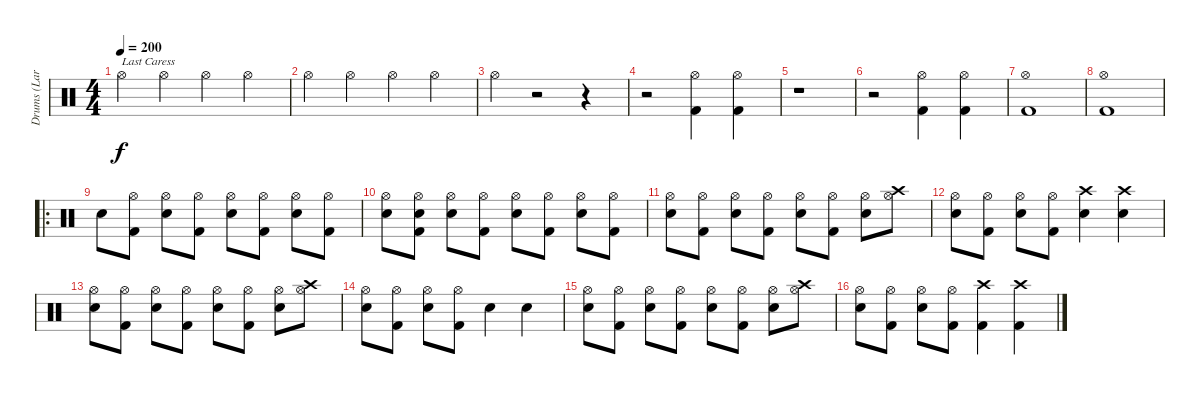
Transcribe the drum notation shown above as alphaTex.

\track ("Drums (Lars Ulrich)" "Drums (Lar") {instrument percussion}
\staff {score}
\articulation defaults
\ts (4 4)
\tempo 200
\clef neutral
\ks c "Hi-Hat (open)".4{txt "Last Caress" dy f} "Hi-Hat (open)".4 "Hi-Hat (open)".4 "Hi-Hat (open)".4
|
"Hi-Hat (open)".4 "Hi-Hat (open)".4 "Hi-Hat (open)".4 "Hi-Hat (open)".4 |
"Hi-Hat (open)".4 r.2 r.4 |
r.2 ("Hi-Hat (open)" "Kick (hit) 2").4 ("Hi-Hat (open)" "Kick (hit) 2").4 |
r.1 |
r.2 ("Hi-Hat (open)" "Kick (hit) 2").4 ("Hi-Hat (open)" "Kick (hit) 2").4 |
("Hi-Hat (open)" "Kick (hit) 2").1 |
("Hi-Hat (open)" "Kick (hit) 2").1 |
\ro "Snare (hit) 2".8
("Hi-Hat (open)" "Kick (hit) 2").8 ("Hi-Hat (open)" "Snare (hit) 2").8 ("Hi-Hat (open)" "Kick (hit) 2").8 ("Hi-Hat (open)" "Snare (hit) 2").8 ("Hi-Hat (open)" "Kick (hit) 2").8 ("Hi-Hat (open)" "Snare (hit) 2").8 ("Hi-Hat (open)" "Kick (hit) 2").8 |
("Hi-Hat (open)" "Snare (hit) 2").8 ("Hi-Hat (open)" "Snare (hit) 2" "Kick (hit) 2").8 ("Hi-Hat (open)" "Snare (hit) 2").8 ("Hi-Hat (open)" "Kick (hit) 2").8 ("Hi-Hat (open)" "Snare (hit) 2").8 ("Hi-Hat (open)" "Kick (hit) 2").8 ("Hi-Hat (open)" "Snare (hit) 2").8 ("Hi-Hat (open)" "Kick (hit) 2").8 |
("Hi-Hat (open)" "Snare (hit) 2").8 ("Hi-Hat (open)" "Kick (hit) 2").8 ("Hi-Hat (open)" "Snare (hit) 2").8 ("Hi-Hat (open)" "Kick (hit) 2").8 ("Hi-Hat (open)" "Snare (hit) 2").8 ("Hi-Hat (open)" "Kick (hit) 2").8 ("Hi-Hat (open)" "Snare (hit) 2").8 ("Hi-Hat (open)" "Crash high (hit)").8 |
("Hi-Hat (open)" "Snare (hit) 2").8 ("Hi-Hat (open)" "Kick (hit) 2").8 ("Hi-Hat (open)" "Snare (hit) 2").8 ("Hi-Hat (open)" "Kick (hit) 2").8 ("Crash high (hit)" "Snare (hit) 2").4 ("Crash high (hit)" "Snare (hit) 2").4 |
("Hi-Hat (open)" "Snare (hit) 2").8 ("Hi-Hat (open)" "Kick (hit) 2").8 ("Hi-Hat (open)" "Snare (hit) 2").8 ("Hi-Hat (open)" "Kick (hit) 2").8 ("Hi-Hat (open)" "Snare (hit) 2").8 ("Hi-Hat (open)" "Kick (hit) 2").8 ("Hi-Hat (open)" "Snare (hit) 2").8 ("Hi-Hat (open)" "Crash high (hit)").8 |
("Hi-Hat (open)" "Snare (hit) 2").8 ("Hi-Hat (open)" "Kick (hit) 2").8 ("Hi-Hat (open)" "Snare (hit) 2").8 ("Hi-Hat (open)" "Kick (hit) 2").8 "Snare (hit) 2".4 "Snare (hit) 2".4 |
("Hi-Hat (open)" "Snare (hit) 2").8 ("Hi-Hat (open)" "Kick (hit) 2").8 ("Hi-Hat (open)" "Snare (hit) 2").8 ("Hi-Hat (open)" "Kick (hit) 2").8 ("Hi-Hat (open)" "Snare (hit) 2").8 ("Hi-Hat (open)" "Kick (hit) 2").8 ("Hi-Hat (open)" "Snare (hit) 2").8 ("Hi-Hat (open)" "Crash high (hit)").8 |
("Hi-Hat (open)" "Snare (hit) 2").8 ("Hi-Hat (open)" "Kick (hit) 2").8 ("Hi-Hat (open)" "Snare (hit) 2").8 ("Hi-Hat (open)" "Kick (hit) 2").8 ("Crash high (hit)" "Kick (hit) 2").4 ("Crash high (hit)" "Kick (hit) 2").4
